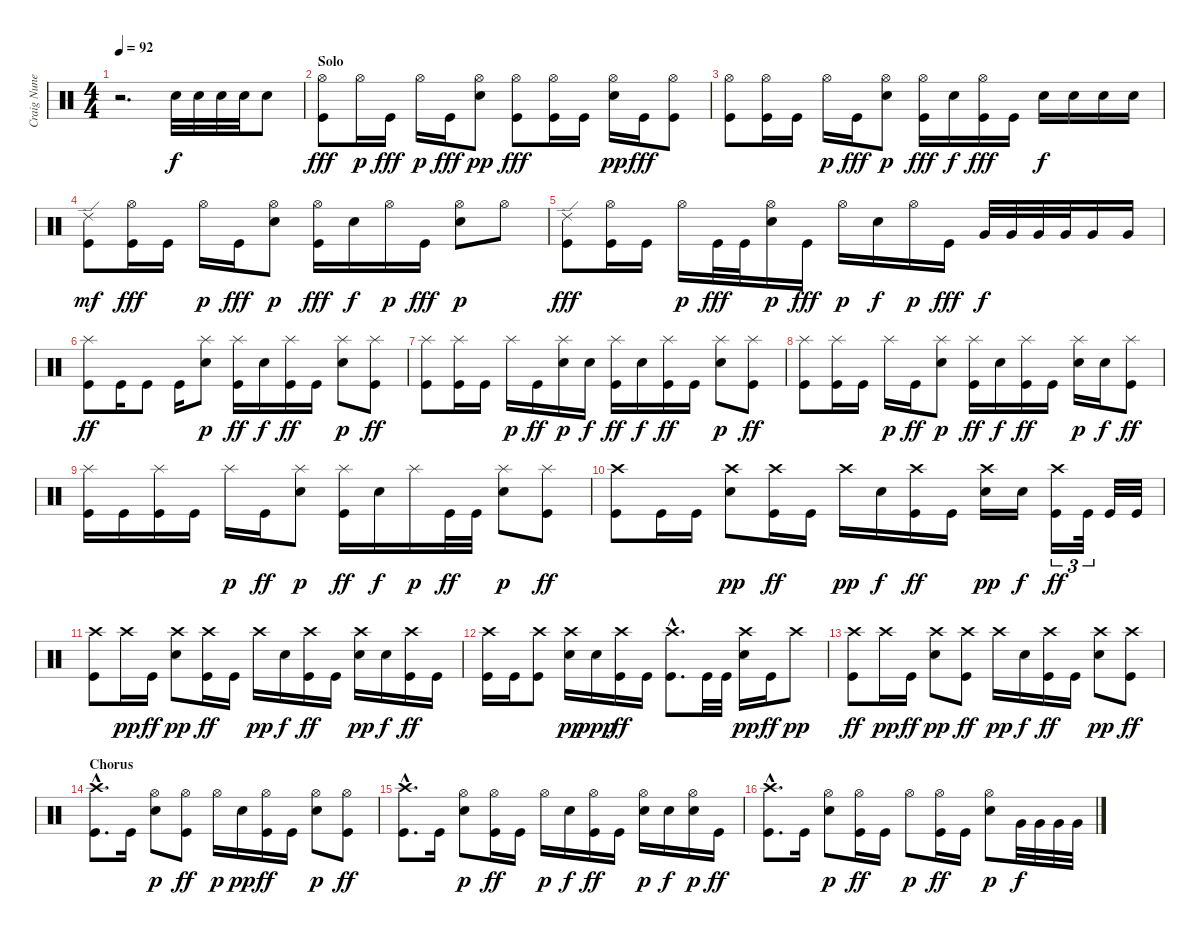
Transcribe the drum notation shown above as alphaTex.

\track ("Craig Nunenmacher" "Craig Nune") {instrument percussion}
\staff {score}
\articulation defaults
\ts (4 4)
\tempo 92
\clef neutral
\ks c
r.2{d dy fff} "Snare (hit) 2".32{dy f} "Snare (hit) 2".32 "Snare (hit) 2".32 "Snare (hit) 2".32 "Snare (hit) 2".8 |
\section ("" "Solo")
("Hi-Hat (open)" "Kick (hit)").8{dy fff} "Hi-Hat (open)".16{dy p} "Kick (hit)".16{dy fff} "Hi-Hat (open)".16{dy p} "Kick (hit)".16{dy fff} ("Hi-Hat (open)" "Snare (hit) 2").8{dy pp} ("Hi-Hat (open)" "Kick (hit)").8{dy fff} ("Hi-Hat (open)" "Kick (hit)").16 "Kick (hit)".16 ("Hi-Hat (open)" "Snare (hit) 2").16{dy pp} "Kick (hit)".16{dy fff} ("Hi-Hat (open)" "Kick (hit)").8 |
("Hi-Hat (open)" "Kick (hit)").8 ("Hi-Hat (open)" "Kick (hit)").16 "Kick (hit)".16 "Hi-Hat (open)".16{dy p} "Kick (hit)".16{dy fff} ("Hi-Hat (open)" "Snare (hit) 2").8{dy p} ("Hi-Hat (open)" "Kick (hit)").16{dy fff} "Snare (hit) 2".16{dy f} ("Hi-Hat (open)" "Kick (hit)").16{dy fff} "Kick (hit)".16 "Snare (hit) 2".16{dy f} "Snare (hit) 2".16 "Snare (hit) 2".16 "Snare (hit) 2".16 |
("Ride (edge) 2" "Kick (hit)").8{dy mf} ("Hi-Hat (open)" "Kick (hit)").16{dy fff} "Kick (hit)".16 "Hi-Hat (open)".16{dy p} "Kick (hit)".16{dy fff} ("Hi-Hat (open)" "Snare (hit) 2").8{dy p} ("Hi-Hat (open)" "Kick (hit)").16{dy fff} "Electric Snare (hit)".16{dy f} "Hi-Hat (open)".16{dy p} "Kick (hit)".16{dy fff} ("Hi-Hat (open)" "Snare (hit) 2").8{dy p} "Hi-Hat (open)".8 |
("Ride (edge) 2" "Kick (hit)").8{dy fff} ("Hi-Hat (open)" "Kick (hit)").16 "Kick (hit)".16 "Hi-Hat (open)".16{dy p} "Kick (hit)".32{dy fff} "Kick (hit)".32 ("Hi-Hat (open)" "Snare (hit) 2").16{dy p} "Kick (hit)".16{dy fff} "Hi-Hat (open)".16{dy p} "Snare (hit) 2".16{dy f} "Hi-Hat (open)".16{dy p} "Kick (hit)".16{dy fff} "Very Low Tom (hit)".32{dy f} "Very Low Tom (hit)".32 "Very Low Tom (hit)".32 "Very Low Tom (hit)".32 "Very Low Tom (hit)".16 "Very Low Tom (hit)".16 |
("Splash (hit)" "Kick (hit)").8{dy ff} "Kick (hit)".16 "Kick (hit)".8 "Kick (hit)".16 ("Splash (hit)" "Snare (hit) 2").8{dy p} ("Splash (hit)" "Kick (hit)").16{dy ff} "Snare (hit) 2".16{dy f} ("Splash (hit)" "Kick (hit)").16{dy ff} "Kick (hit)".16 ("Splash (hit)" "Snare (hit) 2").8{dy p} ("Splash (hit)" "Kick (hit)").8{dy ff} |
("Splash (hit)" "Kick (hit)").8 ("Splash (hit)" "Kick (hit)").16 "Kick (hit)".16 "Splash (hit)".16{dy p} "Kick (hit)".16{dy ff} ("Splash (hit)" "Snare (hit) 2").16{dy p} "Snare (hit) 2".16{dy f} ("Splash (hit)" "Kick (hit)").16{dy ff} "Snare (hit) 2".16{dy f} ("Splash (hit)" "Kick (hit)").16{dy ff} "Kick (hit)".16 ("Splash (hit)" "Snare (hit) 2").8{dy p} ("Splash (hit)" "Kick (hit)").8{dy ff} |
("Splash (hit)" "Kick (hit)").8 ("Splash (hit)" "Kick (hit)").16 "Kick (hit)".16 "Splash (hit)".16{dy p} "Kick (hit)".16{dy ff} ("Splash (hit)" "Snare (hit) 2").8{dy p} ("Splash (hit)" "Kick (hit)").16{dy ff} "Snare (hit) 2".16{dy f} ("Splash (hit)" "Kick (hit)").16{dy ff} "Kick (hit)".16 ("Splash (hit)" "Snare (hit) 2").16{dy p} "Snare (hit) 2".16{dy f} ("Splash (hit)" "Kick (hit)").8{dy ff} |
("Splash (hit)" "Kick (hit)").16 "Kick (hit)".16 ("Splash (hit)" "Kick (hit)").16 "Kick (hit)".16 "Splash (hit)".16{dy p} "Kick (hit)".16{dy ff} ("Splash (hit)" "Snare (hit) 2").8{dy p} ("Splash (hit)" "Kick (hit)").16{dy ff} "Snare (hit) 2".16{dy f} "Splash (hit)".16{dy p} "Kick (hit)".32{dy ff} "Kick (hit)".32 ("Splash (hit)" "Snare (hit) 2").8{dy p} ("Splash (hit)" "Kick (hit)").8{dy ff} |
("Crash high (hit)" "Kick (hit)").8 "Kick (hit)".16 "Kick (hit)".16 ("Crash high (hit)" "Snare (hit) 2").8{dy pp} ("Crash high (hit)" "Kick (hit)").16{dy ff} "Kick (hit)".16 "Crash high (hit)".16{dy pp} "Snare (hit) 2".16{dy f} ("Crash high (hit)" "Kick (hit)").16{dy ff} "Kick (hit)".16 ("Crash high (hit)" "Snare (hit) 2").16{dy pp} "Snare (hit) 2".16{dy f} ("Crash high (hit)" "Kick (hit)").16{tu (3 2) dy ff} "Kick (hit)".32{tu (3 2)} "Kick (hit)".32 "Kick (hit)".32 |
("Crash high (hit)" "Kick (hit)").8 "Crash high (hit)".16{dy pp} "Kick (hit)".16{dy ff} ("Crash high (hit)" "Snare (hit) 2").8{dy pp} ("Crash high (hit)" "Kick (hit)").16{dy ff} "Kick (hit)".16 "Crash high (hit)".16{dy pp} "Snare (hit) 2".16{dy f} ("Crash high (hit)" "Kick (hit)").16{dy ff} "Kick (hit)".16 ("Crash high (hit)" "Snare (hit) 2").16{dy pp} "Snare (hit) 2".16{dy f} ("Crash high (hit)" "Kick (hit)").16{dy ff} "Kick (hit)".16 |
("Crash high (hit)" "Kick (hit)").16 "Kick (hit)".16 ("Crash high (hit)" "Kick (hit)").8 ("Crash high (hit)" "Snare (hit) 2").16{dy pp} "Snare (hit) 2".16{dy ppp} ("Crash high (hit)" "Kick (hit)").16{dy ff} "Kick (hit)".16 ("Crash high (hit)"{hac} "Kick (hit)"{hac}).8{d} "Kick (hit)".32 "Kick (hit)".32 ("Crash high (hit)" "Snare (hit) 2").16{dy pp} "Kick (hit)".16{dy ff} "Crash high (hit)".8{dy pp} |
("Crash high (hit)" "Kick (hit)").8{dy ff} "Crash high (hit)".16{dy pp} "Kick (hit)".16{dy ff} ("Crash high (hit)" "Snare (hit) 2").8{dy pp} ("Crash high (hit)" "Kick (hit)").8{dy ff} "Crash high (hit)".16{dy pp} "Snare (hit) 2".16{dy f} ("Crash high (hit)" "Kick (hit)").16{dy ff} "Kick (hit)".16 ("Crash high (hit)" "Snare (hit) 2").8{dy pp} ("Crash high (hit)" "Kick (hit)").8{dy ff} |
\section ("" "Chorus")
("Crash high (hit)"{hac} "Kick (hit)"{hac}).8{d} "Kick (hit)".16 ("Hi-Hat (open)" "Snare (hit) 2").8{dy p} ("Hi-Hat (open)" "Kick (hit)").8{dy ff} "Hi-Hat (open)".16{dy p} "Snare (hit) 2".16{dy pp} ("Hi-Hat (open)" "Kick (hit)").16{dy ff} "Kick (hit)".16 ("Hi-Hat (open)" "Snare (hit) 2").8{dy p} ("Hi-Hat (open)" "Kick (hit)").8{dy ff} |
("Crash high (hit)"{hac} "Kick (hit)"{hac}).8{d} "Kick (hit)".16 ("Hi-Hat (open)" "Snare (hit) 2").8{dy p} ("Hi-Hat (open)" "Kick (hit)").16{dy ff} "Kick (hit)".16 "Hi-Hat (open)".16{dy p} "Snare (hit) 2".16{dy f} ("Hi-Hat (open)" "Kick (hit)").16{dy ff} "Kick (hit)".16 ("Hi-Hat (open)" "Snare (hit) 2").16{dy p} "Snare (hit) 2".16{dy f} ("Hi-Hat (open)" "Snare (hit) 2").16{dy p} "Kick (hit)".16{dy ff} |
("Crash high (hit)"{hac} "Kick (hit)"{hac}).8{d} "Kick (hit)".16 ("Hi-Hat (open)" "Snare (hit) 2").8{dy p} ("Hi-Hat (open)" "Kick (hit)").16{dy ff} "Kick (hit)".16 "Hi-Hat (open)".8{dy p} ("Hi-Hat (open)" "Kick (hit)").16{dy ff} "Kick (hit)".16 ("Hi-Hat (open)" "Snare (hit) 2").8{dy p} "Very Low Tom (hit)".32{dy f} "Very Low Tom (hit)".32 "Very Low Tom (hit)".32 "Very Low Tom (hit)".32
